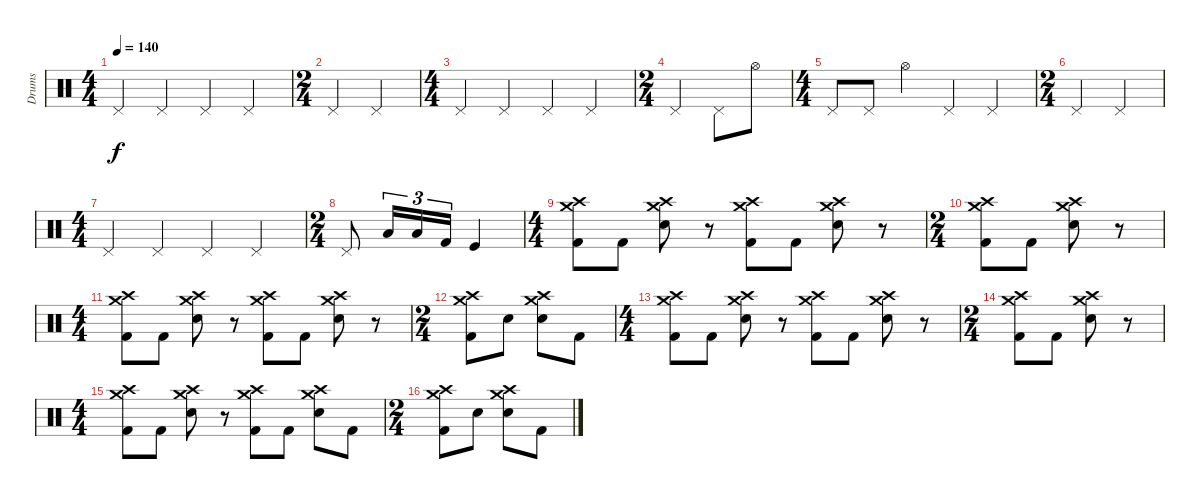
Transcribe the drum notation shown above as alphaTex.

\track ("Drums" "Drums") {instrument percussion}
\staff {score}
\articulation defaults
\ts (4 4)
\tempo 140
\clef neutral
\ks c "Pedal Hi-Hat (hit)".4{dy f} "Pedal Hi-Hat (hit)".4 "Pedal Hi-Hat (hit)".4 "Pedal Hi-Hat (hit)".4
|
\ts (2 4)
"Pedal Hi-Hat (hit)".4 "Pedal Hi-Hat (hit)".4 |
\ts (4 4)
"Pedal Hi-Hat (hit)".4 "Pedal Hi-Hat (hit)".4 "Pedal Hi-Hat (hit)".4 "Pedal Hi-Hat (hit)".4 |
\ts (2 4)
"Pedal Hi-Hat (hit)".4 "Pedal Hi-Hat (hit)".8 "Hi-Hat (open)".8 |
\ts (4 4)
"Pedal Hi-Hat (hit)".8 "Pedal Hi-Hat (hit)".8 "Hi-Hat (open)".4 "Pedal Hi-Hat (hit)".4 "Pedal Hi-Hat (hit)".4 |
\ts (2 4)
"Pedal Hi-Hat (hit)".4 "Pedal Hi-Hat (hit)".4 |
\ts (4 4)
"Pedal Hi-Hat (hit)".4 "Pedal Hi-Hat (hit)".4 "Pedal Hi-Hat (hit)".4 "Pedal Hi-Hat (hit)".4 |
\ts (2 4)
"Pedal Hi-Hat (hit)".8 "Low Tom (hit)".16{tu (3 2)} "Low Tom (hit)".16{tu (3 2)} "Kick (hit) 2".16{tu (3 2)} "Kick (hit)".4 |
\ts (4 4)
("Crash medium (hit)" "Crash high (hit)" "Kick (hit) 2").8 "Kick (hit) 2".8 ("Crash medium (hit)" "Crash high (hit)" "Electric Snare (hit)").8 r.8 ("Crash medium (hit)" "Crash high (hit)" "Kick (hit) 2").8 "Kick (hit) 2".8 ("Crash medium (hit)" "Crash high (hit)" "Electric Snare (hit)").8 r.8 |
\ts (2 4)
("Crash medium (hit)" "Crash high (hit)" "Kick (hit) 2").8 "Kick (hit) 2".8 ("Crash medium (hit)" "Crash high (hit)" "Electric Snare (hit)").8 r.8 |
\ts (4 4)
("Crash medium (hit)" "Crash high (hit)" "Kick (hit) 2").8 "Kick (hit) 2".8 ("Crash medium (hit)" "Crash high (hit)" "Electric Snare (hit)").8 r.8 ("Crash medium (hit)" "Crash high (hit)" "Kick (hit) 2").8 "Kick (hit) 2".8 ("Crash medium (hit)" "Crash high (hit)" "Electric Snare (hit)").8 r.8 |
\ts (2 4)
("Crash medium (hit)" "Crash high (hit)" "Kick (hit) 2").8 "Electric Snare (hit)".8 ("Crash medium (hit)" "Crash high (hit)" "Electric Snare (hit)").8 "Kick (hit) 2".8 |
\ts (4 4)
("Crash medium (hit)" "Crash high (hit)" "Kick (hit) 2").8 "Kick (hit) 2".8 ("Crash medium (hit)" "Crash high (hit)" "Electric Snare (hit)").8 r.8 ("Crash medium (hit)" "Crash high (hit)" "Kick (hit) 2").8 "Kick (hit) 2".8 ("Crash medium (hit)" "Crash high (hit)" "Electric Snare (hit)").8 r.8 |
\ts (2 4)
("Crash medium (hit)" "Crash high (hit)" "Kick (hit) 2").8 "Kick (hit) 2".8 ("Crash medium (hit)" "Crash high (hit)" "Electric Snare (hit)").8 r.8 |
\ts (4 4)
("Crash medium (hit)" "Crash high (hit)" "Kick (hit) 2").8 "Kick (hit) 2".8 ("Crash medium (hit)" "Crash high (hit)" "Electric Snare (hit)").8 r.8 ("Crash medium (hit)" "Crash high (hit)" "Kick (hit) 2").8 "Kick (hit) 2".8 ("Crash medium (hit)" "Crash high (hit)" "Electric Snare (hit)").8 "Kick (hit) 2".8 |
\ts (2 4)
("Crash medium (hit)" "Crash high (hit)" "Kick (hit) 2").8 "Electric Snare (hit)".8 ("Crash medium (hit)" "Crash high (hit)" "Electric Snare (hit)").8 "Kick (hit) 2".8
